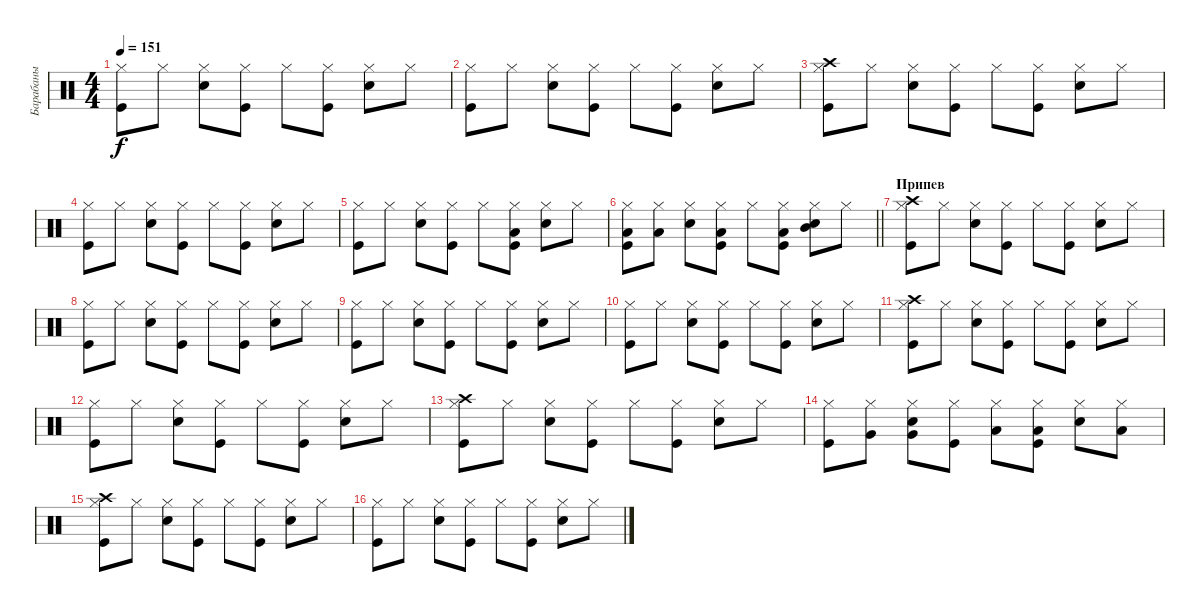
\track ("Барабаны" "Барабаны") {instrument percussion}
\staff {score}
\articulation defaults
\ts (4 4)
\tempo 151
\clef neutral
\ks c
("Kick (hit)" "Hi-Hat (closed)").8{dy f} "Hi-Hat (closed)".8 ("Snare (hit) 2" "Hi-Hat (closed)").8 ("Kick (hit)" "Hi-Hat (closed)").8 "Hi-Hat (closed)".8 ("Kick (hit)" "Hi-Hat (closed)").8 ("Snare (hit) 2" "Hi-Hat (closed)").8 "Hi-Hat (closed)".8 |
("Kick (hit)" "Hi-Hat (closed)").8 "Hi-Hat (closed)".8 ("Snare (hit) 2" "Hi-Hat (closed)").8 ("Kick (hit)" "Hi-Hat (closed)").8 "Hi-Hat (closed)".8 ("Kick (hit)" "Hi-Hat (closed)").8 ("Snare (hit) 2" "Hi-Hat (closed)").8 "Hi-Hat (closed)".8 |
("Kick (hit)" "Hi-Hat (closed)" "Crash high (hit)").8 "Hi-Hat (closed)".8 ("Snare (hit) 2" "Hi-Hat (closed)").8 ("Kick (hit)" "Hi-Hat (closed)").8 "Hi-Hat (closed)".8 ("Kick (hit)" "Hi-Hat (closed)").8 ("Snare (hit) 2" "Hi-Hat (closed)").8 "Hi-Hat (closed)".8 |
("Kick (hit)" "Hi-Hat (closed)").8 "Hi-Hat (closed)".8 ("Snare (hit) 2" "Hi-Hat (closed)").8 ("Kick (hit)" "Hi-Hat (closed)").8 "Hi-Hat (closed)".8 ("Kick (hit)" "Hi-Hat (closed)").8 ("Snare (hit) 2" "Hi-Hat (closed)").8 "Hi-Hat (closed)".8 |
("Kick (hit)" "Hi-Hat (closed)").8 "Hi-Hat (closed)".8 ("Snare (hit) 2" "Hi-Hat (closed)").8 ("Kick (hit)" "Hi-Hat (closed)").8 "Hi-Hat (closed)".8 ("Kick (hit)" "Hi-Hat (closed)" "Low Tom (hit)").8 ("Snare (hit) 2" "Hi-Hat (closed)").8 "Hi-Hat (closed)".8 |
\barLineRight lightlight
("Kick (hit)" "Hi-Hat (closed)" "Low Tom (hit)").8 ("Hi-Hat (closed)" "Low Tom (hit)").8 ("Snare (hit) 2" "Hi-Hat (closed)").8 ("Kick (hit)" "Hi-Hat (closed)" "Low Tom (hit)").8 "Hi-Hat (closed)".8 ("Kick (hit)" "Hi-Hat (closed)" "Low Tom (hit)").8 ("Snare (hit) 2" "Hi-Hat (closed)" "Mid Tom (hit)").8 "Hi-Hat (closed)".8 |
\section ("" "Припев")
("Kick (hit)" "Hi-Hat (closed)" "Crash high (hit)").8 "Hi-Hat (closed)".8 ("Snare (hit) 2" "Hi-Hat (closed)").8 ("Kick (hit)" "Hi-Hat (closed)").8 "Hi-Hat (closed)".8 ("Kick (hit)" "Hi-Hat (closed)").8 ("Snare (hit) 2" "Hi-Hat (closed)").8 "Hi-Hat (closed)".8 |
("Kick (hit)" "Hi-Hat (closed)").8 "Hi-Hat (closed)".8 ("Snare (hit) 2" "Hi-Hat (closed)").8 ("Kick (hit)" "Hi-Hat (closed)").8 "Hi-Hat (closed)".8 ("Kick (hit)" "Hi-Hat (closed)").8 ("Snare (hit) 2" "Hi-Hat (closed)").8 "Hi-Hat (closed)".8 |
("Kick (hit)" "Hi-Hat (closed)").8 "Hi-Hat (closed)".8 ("Snare (hit) 2" "Hi-Hat (closed)").8 ("Kick (hit)" "Hi-Hat (closed)").8 "Hi-Hat (closed)".8 ("Kick (hit)" "Hi-Hat (closed)").8 ("Snare (hit) 2" "Hi-Hat (closed)").8 "Hi-Hat (closed)".8 |
("Kick (hit)" "Hi-Hat (closed)").8 "Hi-Hat (closed)".8 ("Snare (hit) 2" "Hi-Hat (closed)").8 ("Kick (hit)" "Hi-Hat (closed)").8 "Hi-Hat (closed)".8 ("Kick (hit)" "Hi-Hat (closed)").8 ("Snare (hit) 2" "Hi-Hat (closed)").8 "Hi-Hat (closed)".8 |
("Kick (hit)" "Hi-Hat (closed)" "Crash high (hit)").8 "Hi-Hat (closed)".8 ("Snare (hit) 2" "Hi-Hat (closed)").8 ("Kick (hit)" "Hi-Hat (closed)").8 "Hi-Hat (closed)".8 ("Kick (hit)" "Hi-Hat (closed)").8 ("Snare (hit) 2" "Hi-Hat (closed)").8 "Hi-Hat (closed)".8 |
("Kick (hit)" "Hi-Hat (closed)").8 "Hi-Hat (closed)".8 ("Snare (hit) 2" "Hi-Hat (closed)").8 ("Kick (hit)" "Hi-Hat (closed)").8 "Hi-Hat (closed)".8 ("Kick (hit)" "Hi-Hat (closed)").8 ("Snare (hit) 2" "Hi-Hat (closed)").8 "Hi-Hat (closed)".8 |
("Kick (hit)" "Hi-Hat (closed)" "Crash high (hit)").8 "Hi-Hat (closed)".8 ("Snare (hit) 2" "Hi-Hat (closed)").8 ("Kick (hit)" "Hi-Hat (closed)").8 "Hi-Hat (closed)".8 ("Kick (hit)" "Hi-Hat (closed)").8 ("Snare (hit) 2" "Hi-Hat (closed)").8 "Hi-Hat (closed)".8 |
("Kick (hit)" "Hi-Hat (closed)").8 ("Hi-Hat (closed)" "Very Low Tom (hit)").8 ("Snare (hit) 2" "Hi-Hat (closed)" "Very Low Tom (hit)").8 ("Kick (hit)" "Hi-Hat (closed)").8 ("Hi-Hat (closed)" "Low Floor Tom (hit)").8 ("Kick (hit)" "Hi-Hat (closed)" "Low Floor Tom (hit)").8 ("Snare (hit) 2" "Hi-Hat (closed)").8 ("Hi-Hat (closed)" "Low Floor Tom (hit)").8 |
("Kick (hit)" "Hi-Hat (closed)" "Crash high (hit)").8 "Hi-Hat (closed)".8 ("Snare (hit) 2" "Hi-Hat (closed)").8 ("Kick (hit)" "Hi-Hat (closed)").8 "Hi-Hat (closed)".8 ("Kick (hit)" "Hi-Hat (closed)").8 ("Snare (hit) 2" "Hi-Hat (closed)").8 "Hi-Hat (closed)".8 |
("Kick (hit)" "Hi-Hat (closed)").8 "Hi-Hat (closed)".8 ("Snare (hit) 2" "Hi-Hat (closed)").8 ("Kick (hit)" "Hi-Hat (closed)").8 "Hi-Hat (closed)".8 ("Kick (hit)" "Hi-Hat (closed)").8 ("Snare (hit) 2" "Hi-Hat (closed)").8 "Hi-Hat (closed)".8
